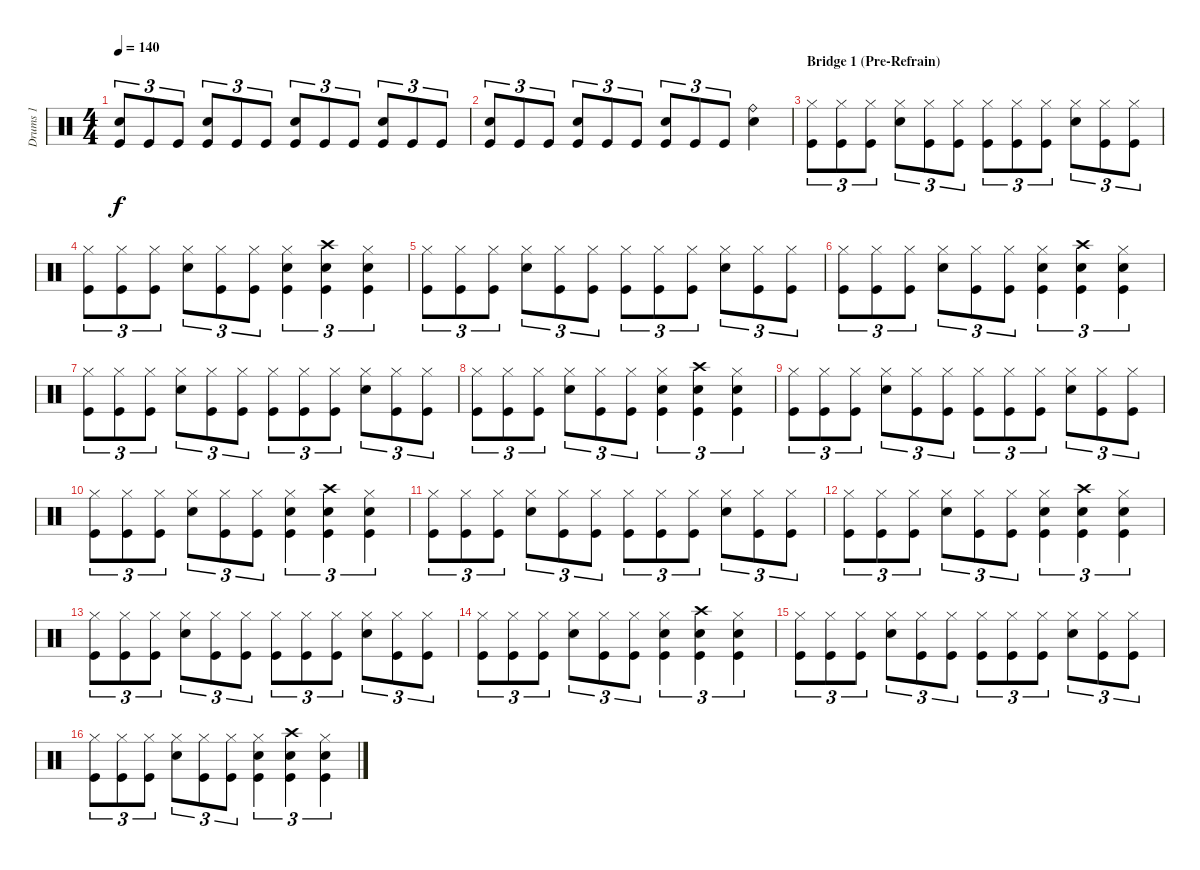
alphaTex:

\track ("Drums 1" "Drums 1") {instrument percussion}
\staff {score}
\articulation defaults
\ts (4 4)
\tempo 140
\clef neutral
\ks c
("Snare (hit) 2" "Kick (hit)").8{tu (3 2) dy f} "Kick (hit)".8{tu (3 2)} "Kick (hit)".8{tu (3 2)} ("Snare (hit) 2" "Kick (hit)").8{tu (3 2)} "Kick (hit)".8{tu (3 2)} "Kick (hit)".8{tu (3 2)} ("Snare (hit) 2" "Kick (hit)").8{tu (3 2)} "Kick (hit)".8{tu (3 2)} "Kick (hit)".8{tu (3 2)} ("Snare (hit) 2" "Kick (hit)").8{tu (3 2)} "Kick (hit)".8{tu (3 2)} "Kick (hit)".8{tu (3 2)} |
("Snare (hit) 2" "Kick (hit)").8{tu (3 2)} "Kick (hit)".8{tu (3 2)} "Kick (hit)".8{tu (3 2)} ("Snare (hit) 2" "Kick (hit)").8{tu (3 2)} "Kick (hit)".8{tu (3 2)} "Kick (hit)".8{tu (3 2)} ("Snare (hit) 2" "Kick (hit)").8{tu (3 2)} "Kick (hit)".8{tu (3 2)} "Kick (hit)".8{tu (3 2)} ("Snare (hit) 2" "Ride (bell)").4 |
\section ("" "Bridge 1 (Pre-Refrain)")
("Hi-Hat (closed)" "Kick (hit)").8{tu (3 2)} ("Hi-Hat (closed)" "Kick (hit)").8{tu (3 2)} ("Hi-Hat (closed)" "Kick (hit)").8{tu (3 2)} ("Hi-Hat (closed)" "Snare (hit) 2").8{tu (3 2)} ("Hi-Hat (closed)" "Kick (hit)").8{tu (3 2)} ("Hi-Hat (closed)" "Kick (hit)").8{tu (3 2)} ("Hi-Hat (closed)" "Kick (hit)").8{tu (3 2)} ("Hi-Hat (closed)" "Kick (hit)").8{tu (3 2)} ("Hi-Hat (closed)" "Kick (hit)").8{tu (3 2)} ("Hi-Hat (closed)" "Snare (hit) 2").8{tu (3 2)} ("Hi-Hat (closed)" "Kick (hit)").8{tu (3 2)} ("Hi-Hat (closed)" "Kick (hit)").8{tu (3 2)} |
("Hi-Hat (closed)" "Kick (hit)").8{tu (3 2)} ("Hi-Hat (closed)" "Kick (hit)").8{tu (3 2)} ("Hi-Hat (closed)" "Kick (hit)").8{tu (3 2)} ("Hi-Hat (closed)" "Snare (hit) 2").8{tu (3 2)} ("Hi-Hat (closed)" "Kick (hit)").8{tu (3 2)} ("Hi-Hat (closed)" "Kick (hit)").8{tu (3 2)} ("Snare (hit) 2" "Hi-Hat (closed)" "Kick (hit)").4{tu (3 2)} ("Snare (hit) 2" "Crash high (hit)" "Kick (hit)").4{tu (3 2)} ("Snare (hit) 2" "Hi-Hat (closed)" "Kick (hit)").4{tu (3 2)} |
("Hi-Hat (closed)" "Kick (hit)").8{tu (3 2)} ("Hi-Hat (closed)" "Kick (hit)").8{tu (3 2)} ("Hi-Hat (closed)" "Kick (hit)").8{tu (3 2)} ("Hi-Hat (closed)" "Snare (hit) 2").8{tu (3 2)} ("Hi-Hat (closed)" "Kick (hit)").8{tu (3 2)} ("Hi-Hat (closed)" "Kick (hit)").8{tu (3 2)} ("Hi-Hat (closed)" "Kick (hit)").8{tu (3 2)} ("Hi-Hat (closed)" "Kick (hit)").8{tu (3 2)} ("Hi-Hat (closed)" "Kick (hit)").8{tu (3 2)} ("Hi-Hat (closed)" "Snare (hit) 2").8{tu (3 2)} ("Hi-Hat (closed)" "Kick (hit)").8{tu (3 2)} ("Hi-Hat (closed)" "Kick (hit)").8{tu (3 2)} |
("Hi-Hat (closed)" "Kick (hit)").8{tu (3 2)} ("Hi-Hat (closed)" "Kick (hit)").8{tu (3 2)} ("Hi-Hat (closed)" "Kick (hit)").8{tu (3 2)} ("Hi-Hat (closed)" "Snare (hit) 2").8{tu (3 2)} ("Hi-Hat (closed)" "Kick (hit)").8{tu (3 2)} ("Hi-Hat (closed)" "Kick (hit)").8{tu (3 2)} ("Snare (hit) 2" "Hi-Hat (closed)" "Kick (hit)").4{tu (3 2)} ("Snare (hit) 2" "Crash high (hit)" "Kick (hit)").4{tu (3 2)} ("Snare (hit) 2" "Hi-Hat (closed)" "Kick (hit)").4{tu (3 2)} |
("Hi-Hat (closed)" "Kick (hit)").8{tu (3 2)} ("Hi-Hat (closed)" "Kick (hit)").8{tu (3 2)} ("Hi-Hat (closed)" "Kick (hit)").8{tu (3 2)} ("Hi-Hat (closed)" "Snare (hit) 2").8{tu (3 2)} ("Hi-Hat (closed)" "Kick (hit)").8{tu (3 2)} ("Hi-Hat (closed)" "Kick (hit)").8{tu (3 2)} ("Hi-Hat (closed)" "Kick (hit)").8{tu (3 2)} ("Hi-Hat (closed)" "Kick (hit)").8{tu (3 2)} ("Hi-Hat (closed)" "Kick (hit)").8{tu (3 2)} ("Hi-Hat (closed)" "Snare (hit) 2").8{tu (3 2)} ("Hi-Hat (closed)" "Kick (hit)").8{tu (3 2)} ("Hi-Hat (closed)" "Kick (hit)").8{tu (3 2)} |
("Hi-Hat (closed)" "Kick (hit)").8{tu (3 2)} ("Hi-Hat (closed)" "Kick (hit)").8{tu (3 2)} ("Hi-Hat (closed)" "Kick (hit)").8{tu (3 2)} ("Hi-Hat (closed)" "Snare (hit) 2").8{tu (3 2)} ("Hi-Hat (closed)" "Kick (hit)").8{tu (3 2)} ("Hi-Hat (closed)" "Kick (hit)").8{tu (3 2)} ("Snare (hit) 2" "Hi-Hat (closed)" "Kick (hit)").4{tu (3 2)} ("Snare (hit) 2" "Crash high (hit)" "Kick (hit)").4{tu (3 2)} ("Snare (hit) 2" "Hi-Hat (closed)" "Kick (hit)").4{tu (3 2)} |
("Hi-Hat (closed)" "Kick (hit)").8{tu (3 2)} ("Hi-Hat (closed)" "Kick (hit)").8{tu (3 2)} ("Hi-Hat (closed)" "Kick (hit)").8{tu (3 2)} ("Hi-Hat (closed)" "Snare (hit) 2").8{tu (3 2)} ("Hi-Hat (closed)" "Kick (hit)").8{tu (3 2)} ("Hi-Hat (closed)" "Kick (hit)").8{tu (3 2)} ("Hi-Hat (closed)" "Kick (hit)").8{tu (3 2)} ("Hi-Hat (closed)" "Kick (hit)").8{tu (3 2)} ("Hi-Hat (closed)" "Kick (hit)").8{tu (3 2)} ("Hi-Hat (closed)" "Snare (hit) 2").8{tu (3 2)} ("Hi-Hat (closed)" "Kick (hit)").8{tu (3 2)} ("Hi-Hat (closed)" "Kick (hit)").8{tu (3 2)} |
("Hi-Hat (closed)" "Kick (hit)").8{tu (3 2)} ("Hi-Hat (closed)" "Kick (hit)").8{tu (3 2)} ("Hi-Hat (closed)" "Kick (hit)").8{tu (3 2)} ("Hi-Hat (closed)" "Snare (hit) 2").8{tu (3 2)} ("Hi-Hat (closed)" "Kick (hit)").8{tu (3 2)} ("Hi-Hat (closed)" "Kick (hit)").8{tu (3 2)} ("Snare (hit) 2" "Hi-Hat (closed)" "Kick (hit)").4{tu (3 2)} ("Snare (hit) 2" "Crash high (hit)" "Kick (hit)").4{tu (3 2)} ("Snare (hit) 2" "Hi-Hat (closed)" "Kick (hit)").4{tu (3 2)} |
("Hi-Hat (closed)" "Kick (hit)").8{tu (3 2)} ("Hi-Hat (closed)" "Kick (hit)").8{tu (3 2)} ("Hi-Hat (closed)" "Kick (hit)").8{tu (3 2)} ("Hi-Hat (closed)" "Snare (hit) 2").8{tu (3 2)} ("Hi-Hat (closed)" "Kick (hit)").8{tu (3 2)} ("Hi-Hat (closed)" "Kick (hit)").8{tu (3 2)} ("Hi-Hat (closed)" "Kick (hit)").8{tu (3 2)} ("Hi-Hat (closed)" "Kick (hit)").8{tu (3 2)} ("Hi-Hat (closed)" "Kick (hit)").8{tu (3 2)} ("Hi-Hat (closed)" "Snare (hit) 2").8{tu (3 2)} ("Hi-Hat (closed)" "Kick (hit)").8{tu (3 2)} ("Hi-Hat (closed)" "Kick (hit)").8{tu (3 2)} |
("Hi-Hat (closed)" "Kick (hit)").8{tu (3 2)} ("Hi-Hat (closed)" "Kick (hit)").8{tu (3 2)} ("Hi-Hat (closed)" "Kick (hit)").8{tu (3 2)} ("Hi-Hat (closed)" "Snare (hit) 2").8{tu (3 2)} ("Hi-Hat (closed)" "Kick (hit)").8{tu (3 2)} ("Hi-Hat (closed)" "Kick (hit)").8{tu (3 2)} ("Snare (hit) 2" "Hi-Hat (closed)" "Kick (hit)").4{tu (3 2)} ("Snare (hit) 2" "Crash high (hit)" "Kick (hit)").4{tu (3 2)} ("Snare (hit) 2" "Hi-Hat (closed)" "Kick (hit)").4{tu (3 2)} |
("Hi-Hat (closed)" "Kick (hit)").8{tu (3 2)} ("Hi-Hat (closed)" "Kick (hit)").8{tu (3 2)} ("Hi-Hat (closed)" "Kick (hit)").8{tu (3 2)} ("Hi-Hat (closed)" "Snare (hit) 2").8{tu (3 2)} ("Hi-Hat (closed)" "Kick (hit)").8{tu (3 2)} ("Hi-Hat (closed)" "Kick (hit)").8{tu (3 2)} ("Hi-Hat (closed)" "Kick (hit)").8{tu (3 2)} ("Hi-Hat (closed)" "Kick (hit)").8{tu (3 2)} ("Hi-Hat (closed)" "Kick (hit)").8{tu (3 2)} ("Hi-Hat (closed)" "Snare (hit) 2").8{tu (3 2)} ("Hi-Hat (closed)" "Kick (hit)").8{tu (3 2)} ("Hi-Hat (closed)" "Kick (hit)").8{tu (3 2)} |
("Hi-Hat (closed)" "Kick (hit)").8{tu (3 2)} ("Hi-Hat (closed)" "Kick (hit)").8{tu (3 2)} ("Hi-Hat (closed)" "Kick (hit)").8{tu (3 2)} ("Hi-Hat (closed)" "Snare (hit) 2").8{tu (3 2)} ("Hi-Hat (closed)" "Kick (hit)").8{tu (3 2)} ("Hi-Hat (closed)" "Kick (hit)").8{tu (3 2)} ("Snare (hit) 2" "Hi-Hat (closed)" "Kick (hit)").4{tu (3 2)} ("Snare (hit) 2" "Crash high (hit)" "Kick (hit)").4{tu (3 2)} ("Snare (hit) 2" "Hi-Hat (closed)" "Kick (hit)").4{tu (3 2)} |
("Hi-Hat (closed)" "Kick (hit)").8{tu (3 2)} ("Hi-Hat (closed)" "Kick (hit)").8{tu (3 2)} ("Hi-Hat (closed)" "Kick (hit)").8{tu (3 2)} ("Hi-Hat (closed)" "Snare (hit) 2").8{tu (3 2)} ("Hi-Hat (closed)" "Kick (hit)").8{tu (3 2)} ("Hi-Hat (closed)" "Kick (hit)").8{tu (3 2)} ("Hi-Hat (closed)" "Kick (hit)").8{tu (3 2)} ("Hi-Hat (closed)" "Kick (hit)").8{tu (3 2)} ("Hi-Hat (closed)" "Kick (hit)").8{tu (3 2)} ("Hi-Hat (closed)" "Snare (hit) 2").8{tu (3 2)} ("Hi-Hat (closed)" "Kick (hit)").8{tu (3 2)} ("Hi-Hat (closed)" "Kick (hit)").8{tu (3 2)} |
("Hi-Hat (closed)" "Kick (hit)").8{tu (3 2)} ("Hi-Hat (closed)" "Kick (hit)").8{tu (3 2)} ("Hi-Hat (closed)" "Kick (hit)").8{tu (3 2)} ("Hi-Hat (closed)" "Snare (hit) 2").8{tu (3 2)} ("Hi-Hat (closed)" "Kick (hit)").8{tu (3 2)} ("Hi-Hat (closed)" "Kick (hit)").8{tu (3 2)} ("Snare (hit) 2" "Hi-Hat (closed)" "Kick (hit)").4{tu (3 2)} ("Snare (hit) 2" "Crash high (hit)" "Kick (hit)").4{tu (3 2)} ("Snare (hit) 2" "Hi-Hat (closed)" "Kick (hit)").4{tu (3 2)}
